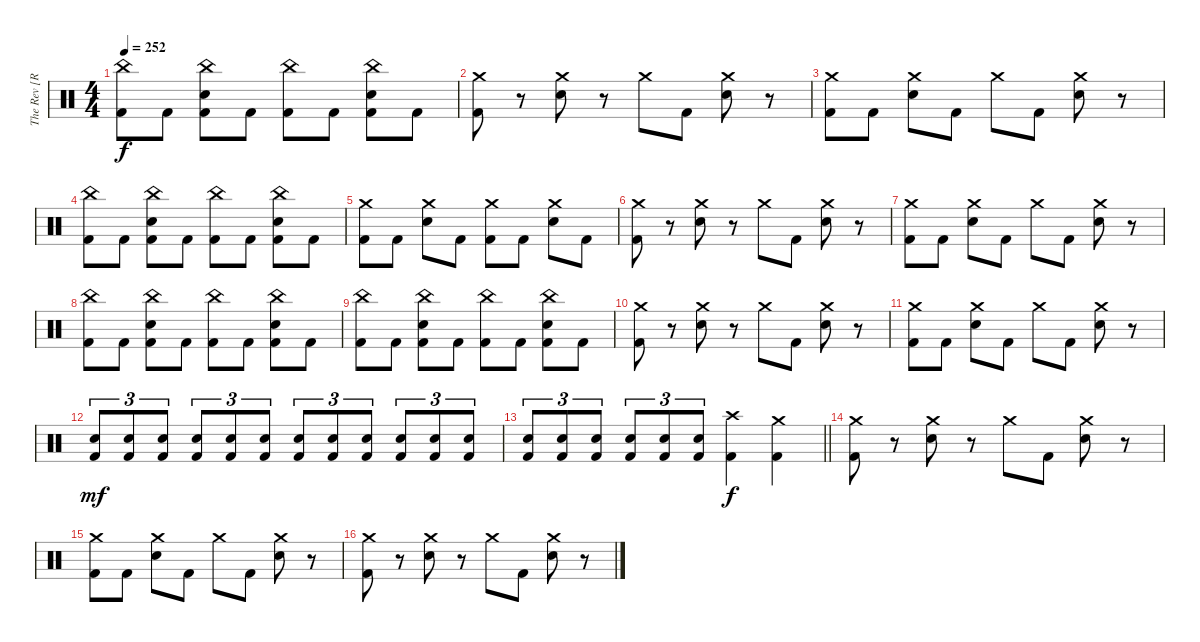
\track ("The Rev [R.I.P]" "The Rev [R") {instrument percussion}
\staff {score}
\articulation defaults
\ts (4 4)
\tempo 252
\clef neutral
\ks c
("China (hit)" "Kick (hit) 2").8{dy f} "Kick (hit) 2".8 ("China (hit)" "Electric Snare (hit)" "Kick (hit) 2").8 "Kick (hit) 2".8 ("China (hit)" "Kick (hit) 2").8 "Kick (hit) 2".8 ("China (hit)" "Electric Snare (hit)" "Kick (hit) 2").8 "Kick (hit) 2".8 |
("Crash medium (hit)" "Kick (hit) 2").8 r.8 ("Crash medium (hit)" "Electric Snare (hit)").8 r.8 "Crash medium (hit)".8 "Kick (hit) 2".8 ("Crash medium (hit)" "Electric Snare (hit)").8 r.8 |
("Crash medium (hit)" "Kick (hit) 2").8 "Kick (hit) 2".8 ("Crash medium (hit)" "Electric Snare (hit)").8 "Kick (hit) 2".8 "Crash medium (hit)".8 "Kick (hit) 2".8 ("Crash medium (hit)" "Electric Snare (hit)").8 r.8 |
("China (hit)" "Kick (hit) 2").8 "Kick (hit) 2".8 ("China (hit)" "Electric Snare (hit)" "Kick (hit) 2").8 "Kick (hit) 2".8 ("China (hit)" "Kick (hit) 2").8 "Kick (hit) 2".8 ("China (hit)" "Electric Snare (hit)" "Kick (hit) 2").8 "Kick (hit) 2".8 |
("Crash medium (hit)" "Kick (hit) 2").8 "Kick (hit) 2".8 ("Crash medium (hit)" "Electric Snare (hit)").8 "Kick (hit) 2".8 ("Crash medium (hit)" "Kick (hit) 2").8 "Kick (hit) 2".8 ("Crash medium (hit)" "Electric Snare (hit)").8 "Kick (hit) 2".8 |
("Crash medium (hit)" "Kick (hit) 2").8 r.8 ("Crash medium (hit)" "Electric Snare (hit)").8 r.8 "Crash medium (hit)".8 "Kick (hit) 2".8 ("Crash medium (hit)" "Electric Snare (hit)").8 r.8 |
("Crash medium (hit)" "Kick (hit) 2").8 "Kick (hit) 2".8 ("Crash medium (hit)" "Electric Snare (hit)").8 "Kick (hit) 2".8 "Crash medium (hit)".8 "Kick (hit) 2".8 ("Crash medium (hit)" "Electric Snare (hit)").8 r.8 |
("China (hit)" "Kick (hit) 2").8 "Kick (hit) 2".8 ("China (hit)" "Electric Snare (hit)" "Kick (hit) 2").8 "Kick (hit) 2".8 ("China (hit)" "Kick (hit) 2").8 "Kick (hit) 2".8 ("China (hit)" "Electric Snare (hit)" "Kick (hit) 2").8 "Kick (hit) 2".8 |
("China (hit)" "Kick (hit) 2").8 "Kick (hit) 2".8 ("China (hit)" "Electric Snare (hit)" "Kick (hit) 2").8 "Kick (hit) 2".8 ("China (hit)" "Kick (hit) 2").8 "Kick (hit) 2".8 ("China (hit)" "Electric Snare (hit)" "Kick (hit) 2").8 "Kick (hit) 2".8 |
("Crash medium (hit)" "Kick (hit) 2").8 r.8 ("Crash medium (hit)" "Electric Snare (hit)").8 r.8 "Crash medium (hit)".8 "Kick (hit) 2".8 ("Crash medium (hit)" "Electric Snare (hit)").8 r.8 |
("Crash medium (hit)" "Kick (hit) 2").8 "Kick (hit) 2".8 ("Crash medium (hit)" "Electric Snare (hit)").8 "Kick (hit) 2".8 "Crash medium (hit)".8 "Kick (hit) 2".8 ("Crash medium (hit)" "Electric Snare (hit)").8 r.8 |
("Electric Snare (hit)" "Kick (hit) 2").8{tu (3 2) dy mf} ("Electric Snare (hit)" "Kick (hit) 2").8{tu (3 2)} ("Electric Snare (hit)" "Kick (hit) 2").8{tu (3 2)} ("Electric Snare (hit)" "Kick (hit) 2").8{tu (3 2)} ("Electric Snare (hit)" "Kick (hit) 2").8{tu (3 2)} ("Electric Snare (hit)" "Kick (hit) 2").8{tu (3 2)} ("Electric Snare (hit)" "Kick (hit) 2").8{tu (3 2)} ("Electric Snare (hit)" "Kick (hit) 2").8{tu (3 2)} ("Electric Snare (hit)" "Kick (hit) 2").8{tu (3 2)} ("Electric Snare (hit)" "Kick (hit) 2").8{tu (3 2)} ("Electric Snare (hit)" "Kick (hit) 2").8{tu (3 2)} ("Electric Snare (hit)" "Kick (hit) 2").8{tu (3 2)} |
\barLineRight lightlight
("Electric Snare (hit)" "Kick (hit) 2").8{tu (3 2)} ("Electric Snare (hit)" "Kick (hit) 2").8{tu (3 2)} ("Electric Snare (hit)" "Kick (hit) 2").8{tu (3 2)} ("Electric Snare (hit)" "Kick (hit) 2").8{tu (3 2)} ("Electric Snare (hit)" "Kick (hit) 2").8{tu (3 2)} ("Electric Snare (hit)" "Kick (hit) 2").8{tu (3 2)} ("Crash high (hit)" "Kick (hit) 2").4{dy f} ("Crash medium (hit)" "Kick (hit) 2").4 |
("Crash medium (hit)" "Kick (hit) 2").8 r.8 ("Crash medium (hit)" "Electric Snare (hit)").8 r.8 "Crash medium (hit)".8 "Kick (hit) 2".8 ("Crash medium (hit)" "Electric Snare (hit)").8 r.8 |
("Crash medium (hit)" "Kick (hit) 2").8 "Kick (hit) 2".8 ("Crash medium (hit)" "Electric Snare (hit)").8 "Kick (hit) 2".8 "Crash medium (hit)".8 "Kick (hit) 2".8 ("Crash medium (hit)" "Electric Snare (hit)").8 r.8 |
("Crash medium (hit)" "Kick (hit) 2").8 r.8 ("Crash medium (hit)" "Electric Snare (hit)").8 r.8 "Crash medium (hit)".8 "Kick (hit) 2".8 ("Crash medium (hit)" "Electric Snare (hit)").8 r.8
